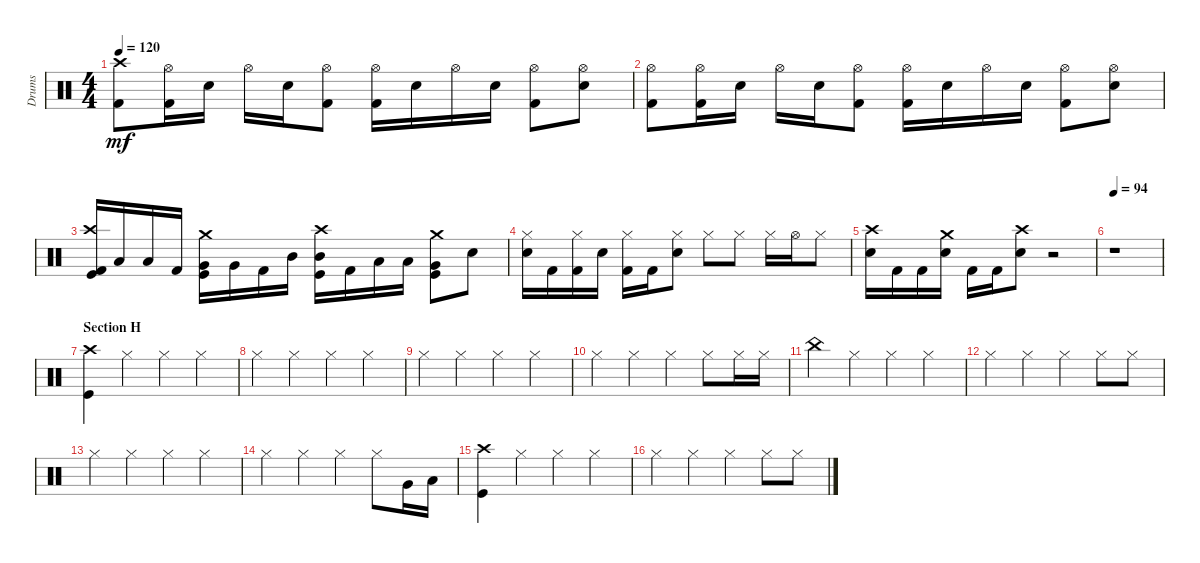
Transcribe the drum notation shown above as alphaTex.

\track ("Drums" "Drums") {instrument percussion}
\staff {score}
\articulation defaults
\ts (4 4)
\tempo 120
\clef neutral
\ks aminor
("Kick (hit) 2" "Crash high (hit)").8{dy mf} ("Hi-Hat (open)" "Kick (hit) 2").16 "Snare (hit) 2".16 "Hi-Hat (open)".16 "Snare (hit) 2".16 ("Kick (hit) 2" "Hi-Hat (open)").8 ("Hi-Hat (open)" "Kick (hit) 2").16 "Snare (hit) 2".16 "Hi-Hat (open)".16 "Snare (hit) 2".16 ("Kick (hit) 2" "Hi-Hat (open)").8 ("Hi-Hat (open)" "Snare (hit) 2").8 |
("Hi-Hat (open)" "Kick (hit) 2").8 ("Hi-Hat (open)" "Kick (hit) 2").16 "Snare (hit) 2".16 "Hi-Hat (open)".16 "Snare (hit) 2".16 ("Hi-Hat (open)" "Kick (hit) 2").8 ("Hi-Hat (open)" "Kick (hit) 2").16 "Snare (hit) 2".16 "Hi-Hat (open)".16 "Snare (hit) 2".16 ("Kick (hit) 2" "Hi-Hat (open)").8 ("Snare (hit) 2" "Hi-Hat (open)").8 |
("Kick (hit) 2" "Kick (hit)" "Crash high (hit)").16 "Low Tom (hit)".16 "Low Tom (hit)".16 "Kick (hit) 2".16 ("Kick (hit)" "Very Low Tom (hit)" "Crash medium (hit)").16 "Very Low Tom (hit)".16 "Kick (hit) 2".16 "Mid Tom (hit)".16 ("Mid Tom (hit)" "Crash high (hit)" "Kick (hit)").16 "Kick (hit) 2".16 "Low Tom (hit)".16 "Low Tom (hit)".16 ("Very Low Tom (hit)" "Kick (hit)" "Crash medium (hit)").8 "Snare (hit) 2".8 |
("Snare (hit) 2" "Hi-Hat (closed)").16 "Kick (hit) 2".16 ("Kick (hit) 2" "Hi-Hat (closed)").16 "Snare (hit) 2".16 ("Hi-Hat (closed)" "Kick (hit) 2").16 "Kick (hit) 2".16 ("Hi-Hat (closed)" "Snare (hit) 2").8 "Hi-Hat (closed)".8 "Hi-Hat (closed)".8 "Hi-Hat (closed)".16 "Hi-Hat (open)".16 "Hi-Hat (closed)".8 |
("Crash high (hit)" "Snare (hit) 2").16 "Kick (hit) 2".16 "Kick (hit) 2".16 ("Snare (hit) 2" "Crash medium (hit)").16 "Kick (hit) 2".16 "Kick (hit) 2".16 ("Snare (hit) 2" "Crash high (hit)").8 r.2 |
\tempo 94
r.1 |
\section ("" "Section H")
("Crash high (hit)" "Kick (hit)").4 "Hi-Hat (closed)".4 "Hi-Hat (closed)".4 "Hi-Hat (closed)".4 |
"Hi-Hat (closed)".4 "Hi-Hat (closed)".4 "Hi-Hat (closed)".4 "Hi-Hat (closed)".4 |
"Hi-Hat (closed)".4 "Hi-Hat (closed)".4 "Hi-Hat (closed)".4 "Hi-Hat (closed)".4 |
"Hi-Hat (closed)".4 "Hi-Hat (closed)".4 "Hi-Hat (closed)".4 "Hi-Hat (closed)".8 "Hi-Hat (closed)".16 "Hi-Hat (closed)".16 |
"China (hit)".4 "Hi-Hat (closed)".4 "Hi-Hat (closed)".4 "Hi-Hat (closed)".4 |
"Hi-Hat (closed)".4 "Hi-Hat (closed)".4 "Hi-Hat (closed)".4 "Hi-Hat (closed)".8 "Hi-Hat (closed)".8 |
"Hi-Hat (closed)".4 "Hi-Hat (closed)".4 "Hi-Hat (closed)".4 "Hi-Hat (closed)".4 |
"Hi-Hat (closed)".4 "Hi-Hat (closed)".4 "Hi-Hat (closed)".4 "Hi-Hat (closed)".8 "Very Low Tom (hit)".16 "Low Floor Tom (hit)".16 |
("Crash high (hit)" "Kick (hit)").4 "Hi-Hat (closed)".4 "Hi-Hat (closed)".4 "Hi-Hat (closed)".4 |
"Hi-Hat (closed)".4 "Hi-Hat (closed)".4 "Hi-Hat (closed)".4 "Hi-Hat (closed)".8 "Hi-Hat (closed)".8
